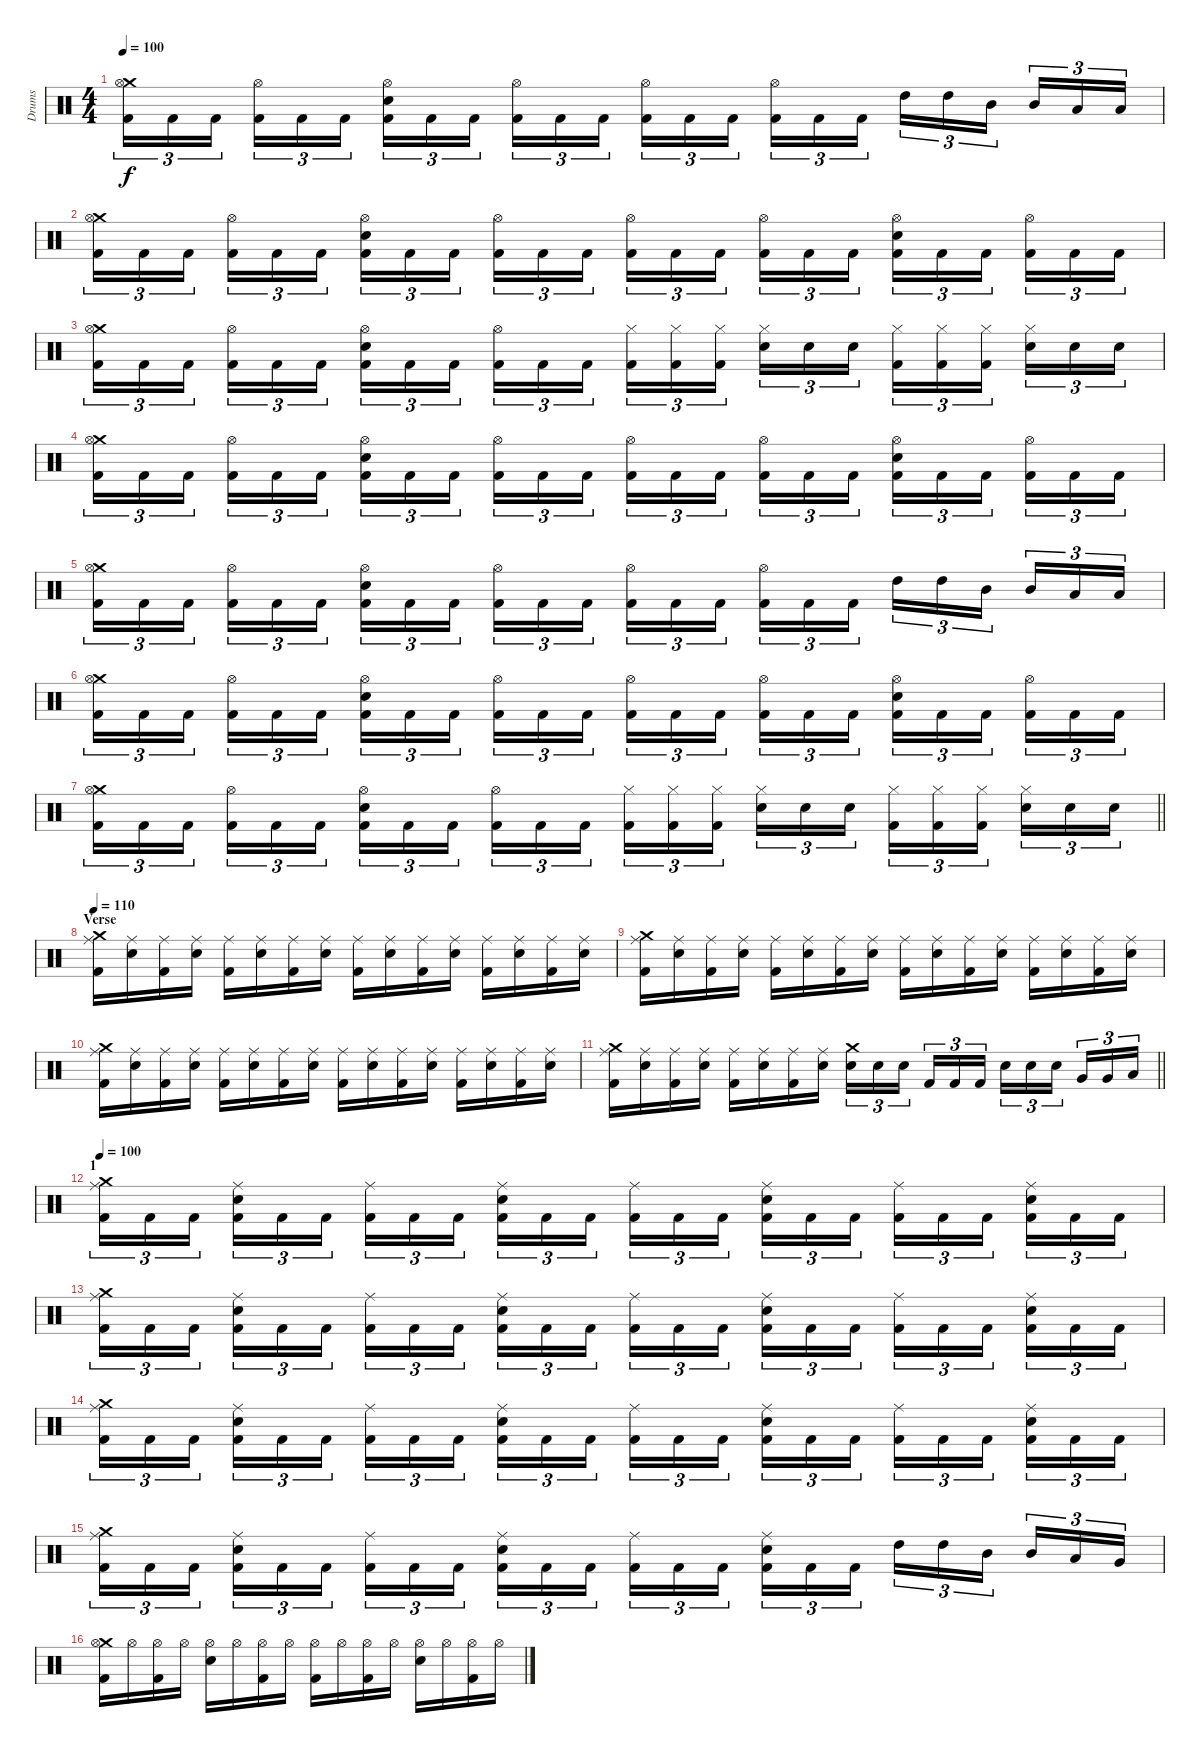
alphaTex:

\track ("Drums" "Drums") {instrument percussion}
\staff {score}
\articulation defaults
\ts (4 4)
\tempo 100
\clef neutral
\ks c
("Crash medium (hit)" "Hi-Hat (open)" "Kick (hit) 2").16{tu (3 2) dy f} "Kick (hit) 2".16{tu (3 2)} "Kick (hit) 2".16{tu (3 2) beam splitsecondary} ("Hi-Hat (open)" "Kick (hit) 2").16{tu (3 2)} "Kick (hit) 2".16{tu (3 2)} "Kick (hit) 2".16{tu (3 2)} ("Hi-Hat (open)" "Electric Snare (hit)" "Kick (hit) 2").16{tu (3 2)} "Kick (hit) 2".16{tu (3 2)} "Kick (hit) 2".16{tu (3 2) beam splitsecondary} ("Hi-Hat (open)" "Kick (hit) 2").16{tu (3 2)} "Kick (hit) 2".16{tu (3 2)} "Kick (hit) 2".16{tu (3 2)} ("Hi-Hat (open)" "Kick (hit) 2").16{tu (3 2)} "Kick (hit) 2".16{tu (3 2)} "Kick (hit) 2".16{tu (3 2) beam splitsecondary} ("Hi-Hat (open)" "Kick (hit) 2").16{tu (3 2)} "Kick (hit) 2".16{tu (3 2)} "Kick (hit) 2".16{tu (3 2)} "High Tom (hit)".16{tu (3 2)} "High Tom (hit)".16{tu (3 2)} "Mid Tom (hit)".16{tu (3 2) beam splitsecondary} "Mid Tom (hit)".16{tu (3 2)} "Low Tom (hit)".16{tu (3 2)} "Low Tom (hit)".16{tu (3 2)} |
("Crash medium (hit)" "Hi-Hat (open)" "Kick (hit) 2").16{tu (3 2)} "Kick (hit) 2".16{tu (3 2)} "Kick (hit) 2".16{tu (3 2) beam splitsecondary} ("Hi-Hat (open)" "Kick (hit) 2").16{tu (3 2)} "Kick (hit) 2".16{tu (3 2)} "Kick (hit) 2".16{tu (3 2)} ("Hi-Hat (open)" "Electric Snare (hit)" "Kick (hit) 2").16{tu (3 2)} "Kick (hit) 2".16{tu (3 2)} "Kick (hit) 2".16{tu (3 2) beam splitsecondary} ("Hi-Hat (open)" "Kick (hit) 2").16{tu (3 2)} "Kick (hit) 2".16{tu (3 2)} "Kick (hit) 2".16{tu (3 2)} ("Hi-Hat (open)" "Kick (hit) 2").16{tu (3 2)} "Kick (hit) 2".16{tu (3 2)} "Kick (hit) 2".16{tu (3 2) beam splitsecondary} ("Hi-Hat (open)" "Kick (hit) 2").16{tu (3 2)} "Kick (hit) 2".16{tu (3 2)} "Kick (hit) 2".16{tu (3 2)} ("Hi-Hat (open)" "Electric Snare (hit)" "Kick (hit) 2").16{tu (3 2)} "Kick (hit) 2".16{tu (3 2)} "Kick (hit) 2".16{tu (3 2) beam splitsecondary} ("Hi-Hat (open)" "Kick (hit) 2").16{tu (3 2)} "Kick (hit) 2".16{tu (3 2)} "Kick (hit) 2".16{tu (3 2)} |
("Crash medium (hit)" "Hi-Hat (open)" "Kick (hit) 2").16{tu (3 2)} "Kick (hit) 2".16{tu (3 2)} "Kick (hit) 2".16{tu (3 2) beam splitsecondary} ("Hi-Hat (open)" "Kick (hit) 2").16{tu (3 2)} "Kick (hit) 2".16{tu (3 2)} "Kick (hit) 2".16{tu (3 2)} ("Hi-Hat (open)" "Electric Snare (hit)" "Kick (hit) 2").16{tu (3 2)} "Kick (hit) 2".16{tu (3 2)} "Kick (hit) 2".16{tu (3 2) beam splitsecondary} ("Hi-Hat (open)" "Kick (hit) 2").16{tu (3 2)} "Kick (hit) 2".16{tu (3 2)} "Kick (hit) 2".16{tu (3 2)} ("Hi-Hat (closed)" "Kick (hit) 2").16{tu (3 2)} ("Hi-Hat (closed)" "Kick (hit) 2").16{tu (3 2)} ("Hi-Hat (closed)" "Kick (hit) 2").16{tu (3 2) beam splitsecondary} ("Hi-Hat (closed)" "Electric Snare (hit)").16{tu (3 2)} "Electric Snare (hit)".16{tu (3 2)} "Electric Snare (hit)".16{tu (3 2)} ("Hi-Hat (closed)" "Kick (hit) 2").16{tu (3 2)} ("Hi-Hat (closed)" "Kick (hit) 2").16{tu (3 2)} ("Hi-Hat (closed)" "Kick (hit) 2").16{tu (3 2) beam splitsecondary} ("Hi-Hat (closed)" "Electric Snare (hit)").16{tu (3 2)} "Electric Snare (hit)".16{tu (3 2)} "Electric Snare (hit)".16{tu (3 2)} |
("Crash medium (hit)" "Hi-Hat (open)" "Kick (hit) 2").16{tu (3 2)} "Kick (hit) 2".16{tu (3 2)} "Kick (hit) 2".16{tu (3 2) beam splitsecondary} ("Hi-Hat (open)" "Kick (hit) 2").16{tu (3 2)} "Kick (hit) 2".16{tu (3 2)} "Kick (hit) 2".16{tu (3 2)} ("Hi-Hat (open)" "Electric Snare (hit)" "Kick (hit) 2").16{tu (3 2)} "Kick (hit) 2".16{tu (3 2)} "Kick (hit) 2".16{tu (3 2) beam splitsecondary} ("Hi-Hat (open)" "Kick (hit) 2").16{tu (3 2)} "Kick (hit) 2".16{tu (3 2)} "Kick (hit) 2".16{tu (3 2)} ("Hi-Hat (open)" "Kick (hit) 2").16{tu (3 2)} "Kick (hit) 2".16{tu (3 2)} "Kick (hit) 2".16{tu (3 2) beam splitsecondary} ("Hi-Hat (open)" "Kick (hit) 2").16{tu (3 2)} "Kick (hit) 2".16{tu (3 2)} "Kick (hit) 2".16{tu (3 2)} ("Hi-Hat (open)" "Electric Snare (hit)" "Kick (hit) 2").16{tu (3 2)} "Kick (hit) 2".16{tu (3 2)} "Kick (hit) 2".16{tu (3 2) beam splitsecondary} ("Hi-Hat (open)" "Kick (hit) 2").16{tu (3 2)} "Kick (hit) 2".16{tu (3 2)} "Kick (hit) 2".16{tu (3 2)} |
("Crash medium (hit)" "Hi-Hat (open)" "Kick (hit) 2").16{tu (3 2)} "Kick (hit) 2".16{tu (3 2)} "Kick (hit) 2".16{tu (3 2) beam splitsecondary} ("Hi-Hat (open)" "Kick (hit) 2").16{tu (3 2)} "Kick (hit) 2".16{tu (3 2)} "Kick (hit) 2".16{tu (3 2)} ("Hi-Hat (open)" "Electric Snare (hit)" "Kick (hit) 2").16{tu (3 2)} "Kick (hit) 2".16{tu (3 2)} "Kick (hit) 2".16{tu (3 2) beam splitsecondary} ("Hi-Hat (open)" "Kick (hit) 2").16{tu (3 2)} "Kick (hit) 2".16{tu (3 2)} "Kick (hit) 2".16{tu (3 2)} ("Hi-Hat (open)" "Kick (hit) 2").16{tu (3 2)} "Kick (hit) 2".16{tu (3 2)} "Kick (hit) 2".16{tu (3 2) beam splitsecondary} ("Hi-Hat (open)" "Kick (hit) 2").16{tu (3 2)} "Kick (hit) 2".16{tu (3 2)} "Kick (hit) 2".16{tu (3 2)} "High Tom (hit)".16{tu (3 2)} "High Tom (hit)".16{tu (3 2)} "Mid Tom (hit)".16{tu (3 2) beam splitsecondary} "Mid Tom (hit)".16{tu (3 2)} "Low Tom (hit)".16{tu (3 2)} "Low Tom (hit)".16{tu (3 2)} |
("Crash medium (hit)" "Hi-Hat (open)" "Kick (hit) 2").16{tu (3 2)} "Kick (hit) 2".16{tu (3 2)} "Kick (hit) 2".16{tu (3 2) beam splitsecondary} ("Hi-Hat (open)" "Kick (hit) 2").16{tu (3 2)} "Kick (hit) 2".16{tu (3 2)} "Kick (hit) 2".16{tu (3 2)} ("Hi-Hat (open)" "Electric Snare (hit)" "Kick (hit) 2").16{tu (3 2)} "Kick (hit) 2".16{tu (3 2)} "Kick (hit) 2".16{tu (3 2) beam splitsecondary} ("Hi-Hat (open)" "Kick (hit) 2").16{tu (3 2)} "Kick (hit) 2".16{tu (3 2)} "Kick (hit) 2".16{tu (3 2)} ("Hi-Hat (open)" "Kick (hit) 2").16{tu (3 2)} "Kick (hit) 2".16{tu (3 2)} "Kick (hit) 2".16{tu (3 2) beam splitsecondary} ("Hi-Hat (open)" "Kick (hit) 2").16{tu (3 2)} "Kick (hit) 2".16{tu (3 2)} "Kick (hit) 2".16{tu (3 2)} ("Hi-Hat (open)" "Electric Snare (hit)" "Kick (hit) 2").16{tu (3 2)} "Kick (hit) 2".16{tu (3 2)} "Kick (hit) 2".16{tu (3 2) beam splitsecondary} ("Hi-Hat (open)" "Kick (hit) 2").16{tu (3 2)} "Kick (hit) 2".16{tu (3 2)} "Kick (hit) 2".16{tu (3 2)} |
\barLineRight lightlight
("Crash medium (hit)" "Hi-Hat (open)" "Kick (hit) 2").16{tu (3 2)} "Kick (hit) 2".16{tu (3 2)} "Kick (hit) 2".16{tu (3 2) beam splitsecondary} ("Hi-Hat (open)" "Kick (hit) 2").16{tu (3 2)} "Kick (hit) 2".16{tu (3 2)} "Kick (hit) 2".16{tu (3 2)} ("Hi-Hat (open)" "Electric Snare (hit)" "Kick (hit) 2").16{tu (3 2)} "Kick (hit) 2".16{tu (3 2)} "Kick (hit) 2".16{tu (3 2) beam splitsecondary} ("Hi-Hat (open)" "Kick (hit) 2").16{tu (3 2)} "Kick (hit) 2".16{tu (3 2)} "Kick (hit) 2".16{tu (3 2)} ("Hi-Hat (closed)" "Kick (hit) 2").16{tu (3 2)} ("Hi-Hat (closed)" "Kick (hit) 2").16{tu (3 2)} ("Hi-Hat (closed)" "Kick (hit) 2").16{tu (3 2) beam splitsecondary} ("Hi-Hat (closed)" "Electric Snare (hit)").16{tu (3 2)} "Electric Snare (hit)".16{tu (3 2)} "Electric Snare (hit)".16{tu (3 2)} ("Hi-Hat (closed)" "Kick (hit) 2").16{tu (3 2)} ("Hi-Hat (closed)" "Kick (hit) 2").16{tu (3 2)} ("Hi-Hat (closed)" "Kick (hit) 2").16{tu (3 2) beam splitsecondary} ("Hi-Hat (closed)" "Electric Snare (hit)").16{tu (3 2)} "Electric Snare (hit)".16{tu (3 2)} "Electric Snare (hit)".16{tu (3 2)} |
\section ("" "Verse")
\tempo 110
("Crash medium (hit)" "Ride (middle)" "Kick (hit) 2").16 ("Ride (middle)" "Electric Snare (hit)").16 ("Ride (middle)" "Kick (hit) 2").16 ("Ride (middle)" "Electric Snare (hit)").16 ("Ride (middle)" "Kick (hit) 2").16 ("Ride (middle)" "Electric Snare (hit)").16 ("Ride (middle)" "Kick (hit) 2").16 ("Ride (middle)" "Electric Snare (hit)").16 ("Ride (middle)" "Kick (hit) 2").16 ("Ride (middle)" "Electric Snare (hit)").16 ("Ride (middle)" "Kick (hit) 2").16 ("Ride (middle)" "Electric Snare (hit)").16 ("Ride (middle)" "Kick (hit) 2").16 ("Ride (middle)" "Electric Snare (hit)").16 ("Ride (middle)" "Kick (hit) 2").16 ("Ride (middle)" "Electric Snare (hit)").16 |
("Crash medium (hit)" "Ride (middle)" "Kick (hit) 2").16 ("Ride (middle)" "Electric Snare (hit)").16 ("Ride (middle)" "Kick (hit) 2").16 ("Ride (middle)" "Electric Snare (hit)").16 ("Ride (middle)" "Kick (hit) 2").16 ("Ride (middle)" "Electric Snare (hit)").16 ("Ride (middle)" "Kick (hit) 2").16 ("Ride (middle)" "Electric Snare (hit)").16 ("Ride (middle)" "Kick (hit) 2").16 ("Ride (middle)" "Electric Snare (hit)").16 ("Ride (middle)" "Kick (hit) 2").16 ("Ride (middle)" "Electric Snare (hit)").16 ("Ride (middle)" "Kick (hit) 2").16 ("Ride (middle)" "Electric Snare (hit)").16 ("Ride (middle)" "Kick (hit) 2").16 ("Ride (middle)" "Electric Snare (hit)").16 |
("Crash medium (hit)" "Ride (middle)" "Kick (hit) 2").16 ("Ride (middle)" "Electric Snare (hit)").16 ("Ride (middle)" "Kick (hit) 2").16 ("Ride (middle)" "Electric Snare (hit)").16 ("Ride (middle)" "Kick (hit) 2").16 ("Ride (middle)" "Electric Snare (hit)").16 ("Ride (middle)" "Kick (hit) 2").16 ("Ride (middle)" "Electric Snare (hit)").16 ("Ride (middle)" "Kick (hit) 2").16 ("Ride (middle)" "Electric Snare (hit)").16 ("Ride (middle)" "Kick (hit) 2").16 ("Ride (middle)" "Electric Snare (hit)").16 ("Ride (middle)" "Kick (hit) 2").16 ("Ride (middle)" "Electric Snare (hit)").16 ("Ride (middle)" "Kick (hit) 2").16 ("Ride (middle)" "Electric Snare (hit)").16 |
\barLineRight lightlight
("Crash medium (hit)" "Ride (middle)" "Kick (hit) 2").16 ("Ride (middle)" "Electric Snare (hit)").16 ("Ride (middle)" "Kick (hit) 2").16 ("Ride (middle)" "Electric Snare (hit)").16 ("Ride (middle)" "Kick (hit) 2").16 ("Ride (middle)" "Electric Snare (hit)").16 ("Ride (middle)" "Kick (hit) 2").16 ("Ride (middle)" "Electric Snare (hit)").16 ("Crash medium (hit)" "Electric Snare (hit)").16{tu (3 2)} "Electric Snare (hit)".16{tu (3 2)} "Electric Snare (hit)".16{tu (3 2) beam splitsecondary} "Kick (hit) 2".16{tu (3 2)} "Kick (hit) 2".16{tu (3 2)} "Kick (hit) 2".16{tu (3 2)} "Electric Snare (hit)".16{tu (3 2)} "Electric Snare (hit)".16{tu (3 2)} "Electric Snare (hit)".16{tu (3 2) beam splitsecondary} "Very Low Tom (hit)".16{tu (3 2)} "Very Low Tom (hit)".16{tu (3 2)} "Low Floor Tom (hit)".16{tu (3 2)} |
\section ("" "1")
\tempo 100
("Crash medium (hit)" "Ride (middle)" "Kick (hit) 2").16{tu (3 2)} "Kick (hit) 2".16{tu (3 2)} "Kick (hit) 2".16{tu (3 2) beam splitsecondary} ("Ride (middle)" "Electric Snare (hit)" "Kick (hit) 2").16{tu (3 2)} "Kick (hit) 2".16{tu (3 2)} "Kick (hit) 2".16{tu (3 2)} ("Ride (middle)" "Kick (hit) 2").16{tu (3 2)} "Kick (hit) 2".16{tu (3 2)} "Kick (hit) 2".16{tu (3 2) beam splitsecondary} ("Ride (middle)" "Electric Snare (hit)" "Kick (hit) 2").16{tu (3 2)} "Kick (hit) 2".16{tu (3 2)} "Kick (hit) 2".16{tu (3 2)} ("Ride (middle)" "Kick (hit) 2").16{tu (3 2)} "Kick (hit) 2".16{tu (3 2)} "Kick (hit) 2".16{tu (3 2) beam splitsecondary} ("Ride (middle)" "Electric Snare (hit)" "Kick (hit) 2").16{tu (3 2)} "Kick (hit) 2".16{tu (3 2)} "Kick (hit) 2".16{tu (3 2)} ("Ride (middle)" "Kick (hit) 2").16{tu (3 2)} "Kick (hit) 2".16{tu (3 2)} "Kick (hit) 2".16{tu (3 2) beam splitsecondary} ("Ride (middle)" "Electric Snare (hit)" "Kick (hit) 2").16{tu (3 2)} "Kick (hit) 2".16{tu (3 2)} "Kick (hit) 2".16{tu (3 2)} |
("Crash medium (hit)" "Ride (middle)" "Kick (hit) 2").16{tu (3 2)} "Kick (hit) 2".16{tu (3 2)} "Kick (hit) 2".16{tu (3 2) beam splitsecondary} ("Ride (middle)" "Electric Snare (hit)" "Kick (hit) 2").16{tu (3 2)} "Kick (hit) 2".16{tu (3 2)} "Kick (hit) 2".16{tu (3 2)} ("Ride (middle)" "Kick (hit) 2").16{tu (3 2)} "Kick (hit) 2".16{tu (3 2)} "Kick (hit) 2".16{tu (3 2) beam splitsecondary} ("Ride (middle)" "Electric Snare (hit)" "Kick (hit) 2").16{tu (3 2)} "Kick (hit) 2".16{tu (3 2)} "Kick (hit) 2".16{tu (3 2)} ("Ride (middle)" "Kick (hit) 2").16{tu (3 2)} "Kick (hit) 2".16{tu (3 2)} "Kick (hit) 2".16{tu (3 2) beam splitsecondary} ("Ride (middle)" "Electric Snare (hit)" "Kick (hit) 2").16{tu (3 2)} "Kick (hit) 2".16{tu (3 2)} "Kick (hit) 2".16{tu (3 2)} ("Ride (middle)" "Kick (hit) 2").16{tu (3 2)} "Kick (hit) 2".16{tu (3 2)} "Kick (hit) 2".16{tu (3 2) beam splitsecondary} ("Ride (middle)" "Electric Snare (hit)" "Kick (hit) 2").16{tu (3 2)} "Kick (hit) 2".16{tu (3 2)} "Kick (hit) 2".16{tu (3 2)} |
("Crash medium (hit)" "Ride (middle)" "Kick (hit) 2").16{tu (3 2)} "Kick (hit) 2".16{tu (3 2)} "Kick (hit) 2".16{tu (3 2) beam splitsecondary} ("Ride (middle)" "Electric Snare (hit)" "Kick (hit) 2").16{tu (3 2)} "Kick (hit) 2".16{tu (3 2)} "Kick (hit) 2".16{tu (3 2)} ("Ride (middle)" "Kick (hit) 2").16{tu (3 2)} "Kick (hit) 2".16{tu (3 2)} "Kick (hit) 2".16{tu (3 2) beam splitsecondary} ("Ride (middle)" "Electric Snare (hit)" "Kick (hit) 2").16{tu (3 2)} "Kick (hit) 2".16{tu (3 2)} "Kick (hit) 2".16{tu (3 2)} ("Ride (middle)" "Kick (hit) 2").16{tu (3 2)} "Kick (hit) 2".16{tu (3 2)} "Kick (hit) 2".16{tu (3 2) beam splitsecondary} ("Ride (middle)" "Electric Snare (hit)" "Kick (hit) 2").16{tu (3 2)} "Kick (hit) 2".16{tu (3 2)} "Kick (hit) 2".16{tu (3 2)} ("Ride (middle)" "Kick (hit) 2").16{tu (3 2)} "Kick (hit) 2".16{tu (3 2)} "Kick (hit) 2".16{tu (3 2) beam splitsecondary} ("Ride (middle)" "Electric Snare (hit)" "Kick (hit) 2").16{tu (3 2)} "Kick (hit) 2".16{tu (3 2)} "Kick (hit) 2".16{tu (3 2)} |
("Crash medium (hit)" "Ride (middle)" "Kick (hit) 2").16{tu (3 2)} "Kick (hit) 2".16{tu (3 2)} "Kick (hit) 2".16{tu (3 2) beam splitsecondary} ("Ride (middle)" "Electric Snare (hit)" "Kick (hit) 2").16{tu (3 2)} "Kick (hit) 2".16{tu (3 2)} "Kick (hit) 2".16{tu (3 2)} ("Ride (middle)" "Kick (hit) 2").16{tu (3 2)} "Kick (hit) 2".16{tu (3 2)} "Kick (hit) 2".16{tu (3 2) beam splitsecondary} ("Ride (middle)" "Electric Snare (hit)" "Kick (hit) 2").16{tu (3 2)} "Kick (hit) 2".16{tu (3 2)} "Kick (hit) 2".16{tu (3 2)} ("Ride (middle)" "Kick (hit) 2").16{tu (3 2)} "Kick (hit) 2".16{tu (3 2)} "Kick (hit) 2".16{tu (3 2) beam splitsecondary} ("Ride (middle)" "Electric Snare (hit)" "Kick (hit) 2").16{tu (3 2)} "Kick (hit) 2".16{tu (3 2)} "Kick (hit) 2".16{tu (3 2)} "High Tom (hit)".16{tu (3 2)} "High Tom (hit)".16{tu (3 2)} "Mid Tom (hit)".16{tu (3 2) beam splitsecondary} "Mid Tom (hit)".16{tu (3 2)} "Low Tom (hit)".16{tu (3 2)} "Very Low Tom (hit)".16{tu (3 2)} |
("Crash medium (hit)" "Hi-Hat (open)" "Kick (hit) 2").16 "Hi-Hat (open)".16 ("Hi-Hat (open)" "Kick (hit) 2").16 "Hi-Hat (open)".16 ("Hi-Hat (open)" "Electric Snare (hit)").16 "Hi-Hat (open)".16 ("Hi-Hat (open)" "Kick (hit) 2").16 "Hi-Hat (open)".16 ("Hi-Hat (open)" "Kick (hit) 2").16 "Hi-Hat (open)".16 ("Hi-Hat (open)" "Kick (hit) 2").16 "Hi-Hat (open)".16 ("Hi-Hat (open)" "Electric Snare (hit)").16 "Hi-Hat (open)".16 ("Hi-Hat (open)" "Kick (hit) 2").16 "Hi-Hat (open)".16
